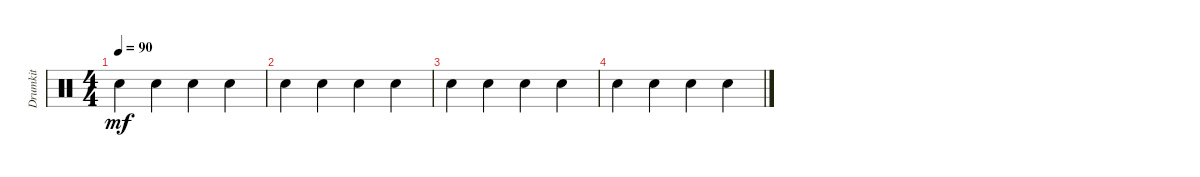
\track ("Drumkit" "Drumkit") {instrument percussion}
\staff {score}
\articulation defaults
\ts (4 4)
\tempo 90
\clef neutral
\ks c "Snare (hit) 2".4{dy mf} "Snare (hit) 2".4 "Snare (hit) 2".4 "Snare (hit) 2".4
|
"Snare (hit) 2".4 "Snare (hit) 2".4 "Snare (hit) 2".4 "Snare (hit) 2".4 |
"Snare (hit) 2".4 "Snare (hit) 2".4 "Snare (hit) 2".4 "Snare (hit) 2".4 |
"Snare (hit) 2".4 "Snare (hit) 2".4 "Snare (hit) 2".4 "Snare (hit) 2".4
